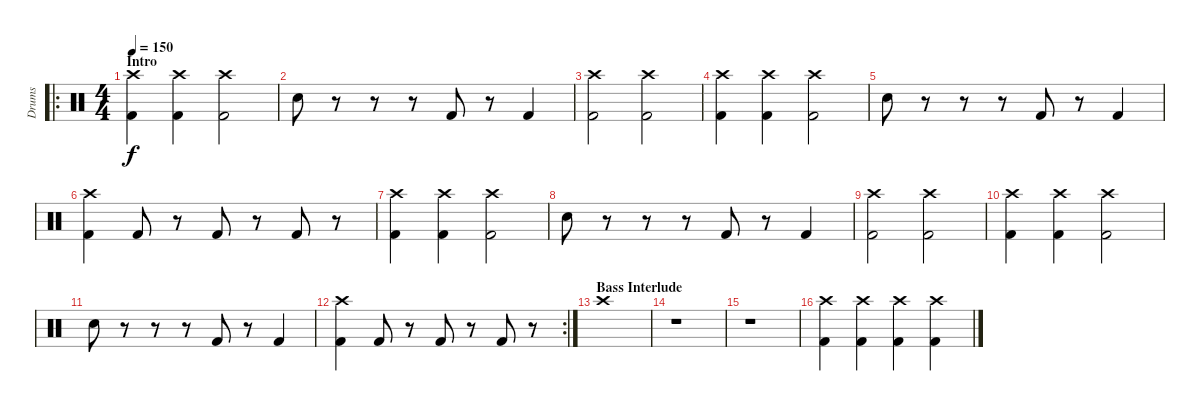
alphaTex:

\track ("Drums" "Drums") {instrument percussion}
\staff {score}
\articulation defaults
\ro
\ts (4 4)
\section ("" "Intro")
\tempo 150
\clef neutral
\ks c
("Kick (hit) 2" "Crash high (hit)").4{dy f} ("Kick (hit) 2" "Crash high (hit)").4 ("Kick (hit) 2" "Crash high (hit)").2 |
"Snare (hit) 2".8 r.8 r.8 r.8 "Kick (hit) 2".8 r.8 "Kick (hit) 2".4 |
("Kick (hit) 2" "Crash high (hit)").2 ("Kick (hit) 2" "Crash high (hit)").2 |
("Kick (hit) 2" "Crash high (hit)").4 ("Kick (hit) 2" "Crash high (hit)").4 ("Kick (hit) 2" "Crash high (hit)").2 |
"Snare (hit) 2".8 r.8 r.8 r.8 "Kick (hit) 2".8 r.8 "Kick (hit) 2".4 |
("Kick (hit) 2" "Crash high (hit)").4 "Kick (hit) 2".8 r.8 "Kick (hit) 2".8 r.8 "Kick (hit) 2".8 r.8 |
("Kick (hit) 2" "Crash high (hit)").4 ("Kick (hit) 2" "Crash high (hit)").4 ("Kick (hit) 2" "Crash high (hit)").2 |
"Snare (hit) 2".8 r.8 r.8 r.8 "Kick (hit) 2".8 r.8 "Kick (hit) 2".4 |
("Kick (hit) 2" "Crash high (hit)").2 ("Kick (hit) 2" "Crash high (hit)").2 |
("Kick (hit) 2" "Crash high (hit)").4 ("Kick (hit) 2" "Crash high (hit)").4 ("Kick (hit) 2" "Crash high (hit)").2 |
"Snare (hit) 2".8 r.8 r.8 r.8 "Kick (hit) 2".8 r.8 "Kick (hit) 2".4 |
\rc 2
("Kick (hit) 2" "Crash high (hit)").4 "Kick (hit) 2".8 r.8 "Kick (hit) 2".8 r.8 "Kick (hit) 2".8 r.8 |
\section ("" "Bass Interlude")
"Crash high (hit)".1 |
r.1 |
r.1 |
("Kick (hit) 2" "Crash high (hit)").4 ("Kick (hit) 2" "Crash high (hit)").4 ("Kick (hit) 2" "Crash high (hit)").4 ("Kick (hit) 2" "Crash high (hit)").4
